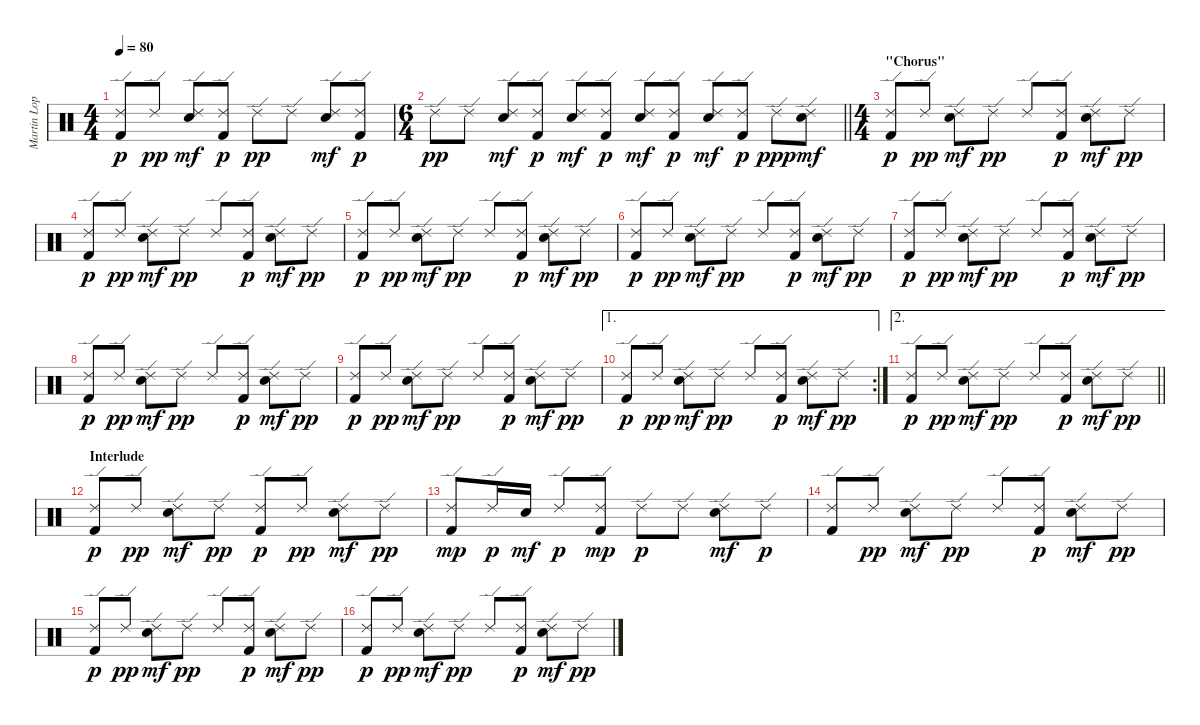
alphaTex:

\track ("Martin Lopez" "Martin Lop") {instrument percussion}
\staff {score}
\articulation defaults
\ts (4 4)
\tempo 80
\clef neutral
\ks c
("Ride (edge) 2" "Kick (hit) 2").8{dy p} "Ride (edge) 2".8{dy pp} ("Ride (edge) 2" "Snare (hit) 2").8{dy mf} ("Ride (edge) 2" "Kick (hit) 2").8{dy p} "Ride (edge) 2".8{dy pp} "Ride (edge) 2".8 ("Ride (edge) 2" "Snare (hit) 2").8{dy mf} ("Ride (edge) 2" "Kick (hit) 2").8{dy p} |
\ts (6 4)
\barLineRight lightlight "Ride (edge) 2".8{dy pp} "Ride (edge) 2".8
("Ride (edge) 2" "Snare (hit) 2").8{dy mf} ("Ride (edge) 2" "Kick (hit) 2").8{dy p} ("Ride (edge) 2" "Snare (hit) 2").8{dy mf} ("Ride (edge) 2" "Kick (hit) 2").8{dy p} ("Ride (edge) 2" "Snare (hit) 2").8{dy mf} ("Ride (edge) 2" "Kick (hit) 2").8{dy p} ("Ride (edge) 2" "Snare (hit) 2").8{dy mf} ("Ride (edge) 2" "Kick (hit) 2").8{dy p} "Ride (edge) 2".8{dy ppp} ("Ride (edge) 2" "Snare (hit) 2").8{dy mf} |
\ts (4 4)
\section ("" "\"Chorus\"")
("Ride (edge) 2" "Kick (hit) 2").8{dy p} "Ride (edge) 2".8{dy pp} ("Ride (edge) 2" "Snare (hit) 2").8{dy mf} "Ride (edge) 2".8{dy pp} "Ride (edge) 2".8 ("Ride (edge) 2" "Kick (hit) 2").8{dy p} ("Ride (edge) 2" "Snare (hit) 2").8{dy mf} "Ride (edge) 2".8{dy pp} |
("Ride (edge) 2" "Kick (hit) 2").8{dy p} "Ride (edge) 2".8{dy pp} ("Ride (edge) 2" "Snare (hit) 2").8{dy mf} "Ride (edge) 2".8{dy pp} "Ride (edge) 2".8 ("Ride (edge) 2" "Kick (hit) 2").8{dy p} ("Ride (edge) 2" "Snare (hit) 2").8{dy mf} "Ride (edge) 2".8{dy pp} |
("Ride (edge) 2" "Kick (hit) 2").8{dy p} "Ride (edge) 2".8{dy pp} ("Ride (edge) 2" "Snare (hit) 2").8{dy mf} "Ride (edge) 2".8{dy pp} "Ride (edge) 2".8 ("Ride (edge) 2" "Kick (hit) 2").8{dy p} ("Ride (edge) 2" "Snare (hit) 2").8{dy mf} "Ride (edge) 2".8{dy pp} |
("Ride (edge) 2" "Kick (hit) 2").8{dy p} "Ride (edge) 2".8{dy pp} ("Ride (edge) 2" "Snare (hit) 2").8{dy mf} "Ride (edge) 2".8{dy pp} "Ride (edge) 2".8 ("Ride (edge) 2" "Kick (hit) 2").8{dy p} ("Ride (edge) 2" "Snare (hit) 2").8{dy mf} "Ride (edge) 2".8{dy pp} |
("Ride (edge) 2" "Kick (hit) 2").8{dy p} "Ride (edge) 2".8{dy pp} ("Ride (edge) 2" "Snare (hit) 2").8{dy mf} "Ride (edge) 2".8{dy pp} "Ride (edge) 2".8 ("Ride (edge) 2" "Kick (hit) 2").8{dy p} ("Ride (edge) 2" "Snare (hit) 2").8{dy mf} "Ride (edge) 2".8{dy pp} |
("Ride (edge) 2" "Kick (hit) 2").8{dy p} "Ride (edge) 2".8{dy pp} ("Ride (edge) 2" "Snare (hit) 2").8{dy mf} "Ride (edge) 2".8{dy pp} "Ride (edge) 2".8 ("Ride (edge) 2" "Kick (hit) 2").8{dy p} ("Ride (edge) 2" "Snare (hit) 2").8{dy mf} "Ride (edge) 2".8{dy pp} |
("Ride (edge) 2" "Kick (hit) 2").8{dy p} "Ride (edge) 2".8{dy pp} ("Ride (edge) 2" "Snare (hit) 2").8{dy mf} "Ride (edge) 2".8{dy pp} "Ride (edge) 2".8 ("Ride (edge) 2" "Kick (hit) 2").8{dy p} ("Ride (edge) 2" "Snare (hit) 2").8{dy mf} "Ride (edge) 2".8{dy pp} |
\ae 1
\rc 2
("Ride (edge) 2" "Kick (hit) 2").8{dy p} "Ride (edge) 2".8{dy pp} ("Ride (edge) 2" "Snare (hit) 2").8{dy mf} "Ride (edge) 2".8{dy pp} "Ride (edge) 2".8 ("Ride (edge) 2" "Kick (hit) 2").8{dy p} ("Ride (edge) 2" "Snare (hit) 2").8{dy mf} "Ride (edge) 2".8{dy pp} |
\ae 2
\barLineRight lightlight
("Ride (edge) 2" "Kick (hit) 2").8{dy p} "Ride (edge) 2".8{dy pp} ("Ride (edge) 2" "Snare (hit) 2").8{dy mf} "Ride (edge) 2".8{dy pp} "Ride (edge) 2".8 ("Ride (edge) 2" "Kick (hit) 2").8{dy p} ("Ride (edge) 2" "Snare (hit) 2").8{dy mf} "Ride (edge) 2".8{dy pp} |
\section ("" "Interlude")
("Ride (edge) 2" "Kick (hit) 2").8{dy p} "Ride (edge) 2".8{dy pp} ("Ride (edge) 2" "Snare (hit) 2").8{dy mf} "Ride (edge) 2".8{dy pp} ("Ride (edge) 2" "Kick (hit) 2").8{dy p} "Ride (edge) 2".8{dy pp} ("Ride (edge) 2" "Snare (hit) 2").8{dy mf} "Ride (edge) 2".8{dy pp} |
("Ride (edge) 2" "Kick (hit) 2").8{dy mp} "Ride (edge) 2".16{dy p} "Snare (hit) 2".16{dy mf} "Ride (edge) 2".8{dy p} ("Ride (edge) 2" "Kick (hit) 2").8{dy mp} "Ride (edge) 2".8{dy p} "Ride (edge) 2".8 ("Ride (edge) 2" "Snare (hit) 2").8{dy mf} "Ride (edge) 2".8{dy p} |
("Ride (edge) 2" "Kick (hit) 2").8 "Ride (edge) 2".8{dy pp} ("Ride (edge) 2" "Snare (hit) 2").8{dy mf} "Ride (edge) 2".8{dy pp} "Ride (edge) 2".8 ("Ride (edge) 2" "Kick (hit) 2").8{dy p} ("Ride (edge) 2" "Snare (hit) 2").8{dy mf} "Ride (edge) 2".8{dy pp} |
("Ride (edge) 2" "Kick (hit) 2").8{dy p} "Ride (edge) 2".8{dy pp} ("Ride (edge) 2" "Snare (hit) 2").8{dy mf} "Ride (edge) 2".8{dy pp} "Ride (edge) 2".8 ("Ride (edge) 2" "Kick (hit) 2").8{dy p} ("Ride (edge) 2" "Snare (hit) 2").8{dy mf} "Ride (edge) 2".8{dy pp} |
("Ride (edge) 2" "Kick (hit) 2").8{dy p} "Ride (edge) 2".8{dy pp} ("Ride (edge) 2" "Snare (hit) 2").8{dy mf} "Ride (edge) 2".8{dy pp} "Ride (edge) 2".8 ("Ride (edge) 2" "Kick (hit) 2").8{dy p} ("Ride (edge) 2" "Snare (hit) 2").8{dy mf} "Ride (edge) 2".8{dy pp}
